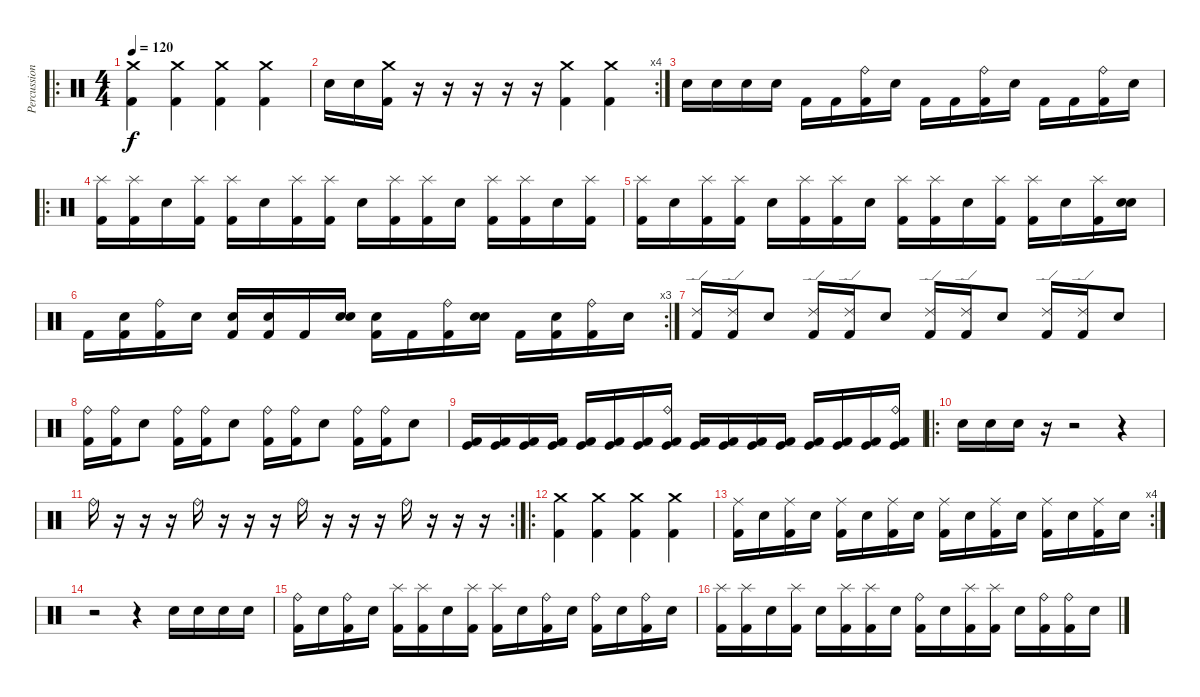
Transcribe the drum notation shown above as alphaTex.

\track ("Percussion" "Percussion") {instrument percussion}
\staff {score}
\articulation defaults
\ro
\ts (4 4)
\tempo 120
\clef neutral
\ks c
("Crash medium (hit)" "Kick (hit) 2").4{dy f} ("Crash medium (hit)" "Kick (hit) 2").4 ("Crash medium (hit)" "Kick (hit) 2").4 ("Crash medium (hit)" "Kick (hit) 2").4 |
\rc 4 "Electric Snare (hit)".16 "Electric Snare (hit)".16
("Crash medium (hit)" "Kick (hit) 2").16 r.16 r.16 r.16 r.16 r.16 ("Crash medium (hit)" "Kick (hit) 2").4 ("Crash medium (hit)" "Kick (hit) 2").4 |
"Electric Snare (hit)".16 "Electric Snare (hit)".16 "Electric Snare (hit)".16 "Electric Snare (hit)".16 "Kick (hit) 2".16 "Kick (hit) 2".16 ("Ride (bell)" "Kick (hit) 2").16 "Electric Snare (hit)".16 "Kick (hit) 2".16 "Kick (hit) 2".16 ("Ride (bell)" "Kick (hit) 2").16 "Electric Snare (hit)".16 "Kick (hit) 2".16 "Kick (hit) 2".16 ("Ride (bell)" "Kick (hit) 2").16 "Electric Snare (hit)".16 |
\ro
("Splash (hit)" "Kick (hit) 2").16 ("Splash (hit)" "Kick (hit) 2").16 "Electric Snare (hit)".16 ("Splash (hit)" "Kick (hit) 2").16 ("Splash (hit)" "Kick (hit) 2").16 "Electric Snare (hit)".16 ("Splash (hit)" "Kick (hit) 2").16 ("Splash (hit)" "Kick (hit) 2").16 "Electric Snare (hit)".16 ("Splash (hit)" "Kick (hit) 2").16 ("Splash (hit)" "Kick (hit) 2").16 "Electric Snare (hit)".16 ("Splash (hit)" "Kick (hit) 2").16 ("Splash (hit)" "Kick (hit) 2").16 "Electric Snare (hit)".16 ("Splash (hit)" "Kick (hit) 2").16 |
("Splash (hit)" "Kick (hit) 2").16 "Electric Snare (hit)".16 ("Splash (hit)" "Kick (hit) 2").16 ("Splash (hit)" "Kick (hit) 2").16 "Electric Snare (hit)".16 ("Splash (hit)" "Kick (hit) 2").16 ("Splash (hit)" "Kick (hit) 2").16 "Electric Snare (hit)".16 ("Splash (hit)" "Kick (hit) 2").16 ("Splash (hit)" "Kick (hit) 2").16 "Electric Snare (hit)".16 ("Splash (hit)" "Kick (hit) 2").16 ("Splash (hit)" "Kick (hit) 2").16 "Electric Snare (hit)".16 ("Splash (hit)" "Kick (hit) 2").16 ("Snare (hit)" "Electric Snare (hit)").16 |
\rc 3 "Kick (hit) 2".16
("Snare (hit)" "Kick (hit) 2").16 ("Ride (bell)" "Kick (hit) 2").16 "Electric Snare (hit)".16 ("Snare (hit)" "Kick (hit) 2").16 ("Snare (hit)" "Kick (hit) 2").16 "Kick (hit) 2".16 ("Snare (hit)" "Electric Snare (hit)").16 ("Snare (hit)" "Kick (hit) 2").16 "Kick (hit) 2".16 ("Ride (bell)" "Kick (hit) 2").16 ("Snare (hit)" "Electric Snare (hit)").16 "Kick (hit) 2".16 ("Snare (hit)" "Kick (hit) 2").16 ("Ride (bell)" "Kick (hit) 2").16 "Electric Snare (hit)".16 |
("Ride (edge) 2" "Kick (hit) 2").16 ("Ride (edge) 2" "Kick (hit) 2").16 "Electric Snare (hit)".8 ("Ride (edge) 2" "Kick (hit) 2").16 ("Ride (edge) 2" "Kick (hit) 2").16 "Electric Snare (hit)".8 ("Ride (edge) 2" "Kick (hit) 2").16 ("Ride (edge) 2" "Kick (hit) 2").16 "Electric Snare (hit)".8 ("Ride (edge) 2" "Kick (hit) 2").16 ("Ride (edge) 2" "Kick (hit) 2").16 "Electric Snare (hit)".8 |
("Ride (bell)" "Kick (hit) 2").16 ("Ride (bell)" "Kick (hit) 2").16 "Electric Snare (hit)".8 ("Ride (bell)" "Kick (hit) 2").16 ("Ride (bell)" "Kick (hit) 2").16 "Electric Snare (hit)".8 ("Ride (bell)" "Kick (hit) 2").16 ("Ride (bell)" "Kick (hit) 2").16 "Electric Snare (hit)".8 ("Ride (bell)" "Kick (hit) 2").16 ("Ride (bell)" "Kick (hit) 2").16 "Electric Snare (hit)".8 |
("Kick (hit)" "Kick (hit) 2").16 ("Kick (hit)" "Kick (hit) 2").16 ("Kick (hit)" "Kick (hit) 2").16 ("Kick (hit)" "Kick (hit) 2").16 ("Kick (hit)" "Kick (hit) 2").16 ("Kick (hit)" "Kick (hit) 2").16 ("Kick (hit)" "Kick (hit) 2").16 ("Ride (bell)" "Kick (hit)" "Kick (hit) 2").16 ("Kick (hit)" "Kick (hit) 2").16 ("Kick (hit)" "Kick (hit) 2").16 ("Kick (hit)" "Kick (hit) 2").16 ("Kick (hit)" "Kick (hit) 2").16 ("Kick (hit)" "Kick (hit) 2").16 ("Kick (hit)" "Kick (hit) 2").16 ("Kick (hit)" "Kick (hit) 2").16 ("Ride (bell)" "Kick (hit)" "Kick (hit) 2").16 |
\ro "Electric Snare (hit)".16 "Electric Snare (hit)".16 "Electric Snare (hit)".16
r.16 r.2 r.4 |
\rc 2 "Ride (bell)".16
r.16 r.16 r.16 "Ride (bell)".16 r.16 r.16 r.16 "Ride (bell)".16 r.16 r.16 r.16 "Ride (bell)".16 r.16 r.16 r.16 |
\ro
("Crash medium (hit)" "Kick (hit) 2").4 ("Crash medium (hit)" "Kick (hit) 2").4 ("Crash medium (hit)" "Kick (hit) 2").4 ("Crash medium (hit)" "Kick (hit) 2").4 |
\rc 4
("Ride (middle)" "Kick (hit) 2").16 "Electric Snare (hit)".16 ("Ride (middle)" "Kick (hit) 2").16 "Electric Snare (hit)".16 ("Ride (middle)" "Kick (hit) 2").16 "Electric Snare (hit)".16 ("Ride (middle)" "Kick (hit) 2").16 "Electric Snare (hit)".16 ("Ride (middle)" "Kick (hit) 2").16 "Electric Snare (hit)".16 ("Ride (middle)" "Kick (hit) 2").16 "Electric Snare (hit)".16 ("Ride (middle)" "Kick (hit) 2").16 "Electric Snare (hit)".16 ("Ride (middle)" "Kick (hit) 2").16 "Electric Snare (hit)".16 |
r.2 r.4 "Electric Snare (hit)".16 "Electric Snare (hit)".16 "Electric Snare (hit)".16 "Electric Snare (hit)".16 |
("Ride (bell)" "Kick (hit) 2").16 "Electric Snare (hit)".16 ("Ride (bell)" "Kick (hit) 2").16 "Electric Snare (hit)".16 ("Splash (hit)" "Kick (hit) 2").16 ("Splash (hit)" "Kick (hit) 2").16 "Electric Snare (hit)".16 ("Splash (hit)" "Kick (hit) 2").16 ("Splash (hit)" "Kick (hit) 2").16 "Electric Snare (hit)".16 ("Ride (bell)" "Kick (hit) 2").16 "Electric Snare (hit)".16 ("Ride (bell)" "Kick (hit) 2").16 "Electric Snare (hit)".16 ("Ride (bell)" "Kick (hit) 2").16 "Electric Snare (hit)".16 |
("Splash (hit)" "Kick (hit) 2").16 ("Splash (hit)" "Kick (hit) 2").16 "Electric Snare (hit)".16 ("Splash (hit)" "Kick (hit) 2").16 "Electric Snare (hit)".16 ("Splash (hit)" "Kick (hit) 2").16 ("Splash (hit)" "Kick (hit) 2").16 "Electric Snare (hit)".16 ("Ride (bell)" "Kick (hit) 2").16 "Electric Snare (hit)".16 ("Splash (hit)" "Kick (hit) 2").16 ("Splash (hit)" "Kick (hit) 2").16 "Electric Snare (hit)".16 ("Ride (bell)" "Kick (hit) 2").16 ("Ride (bell)" "Kick (hit) 2").16 "Electric Snare (hit)".16
